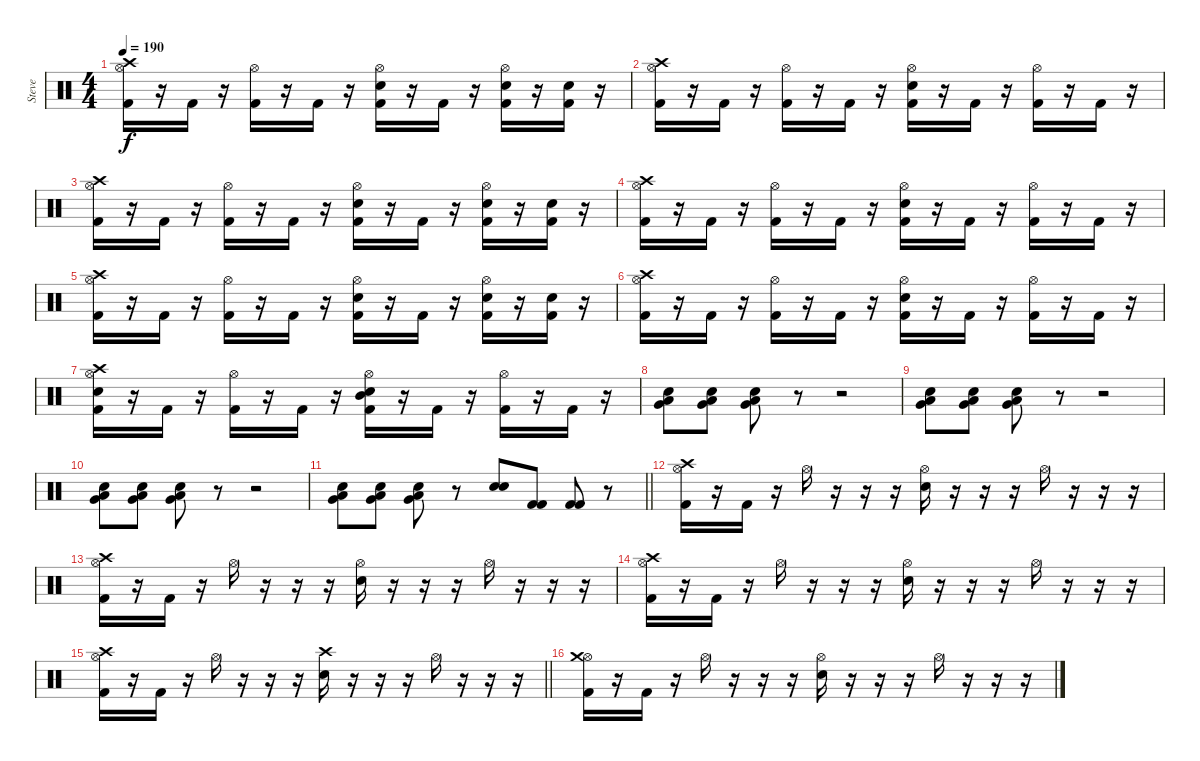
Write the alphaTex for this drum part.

\track ("Steve" "Steve") {instrument percussion}
\staff {score}
\articulation defaults
\ts (4 4)
\tempo 190
\clef neutral
\ks c
("Hi-Hat (open)" "Crash high (hit)" "Kick (hit) 2").16{dy f} r.16 "Kick (hit) 2".16 r.16 ("Hi-Hat (open)" "Kick (hit) 2").16 r.16 "Kick (hit) 2".16 r.16 ("Hi-Hat (open)" "Snare (hit) 2" "Kick (hit) 2").16 r.16 "Kick (hit) 2".16 r.16 ("Hi-Hat (open)" "Snare (hit) 2" "Kick (hit) 2").16 r.16 ("Snare (hit) 2" "Kick (hit) 2").16 r.16 |
("Hi-Hat (open)" "Crash high (hit)" "Kick (hit) 2").16 r.16 "Kick (hit) 2".16 r.16 ("Hi-Hat (open)" "Kick (hit) 2").16 r.16 "Kick (hit) 2".16 r.16 ("Hi-Hat (open)" "Snare (hit) 2" "Kick (hit) 2").16 r.16 "Kick (hit) 2".16 r.16 ("Hi-Hat (open)" "Kick (hit) 2").16 r.16 "Kick (hit) 2".16 r.16 |
("Hi-Hat (open)" "Crash high (hit)" "Kick (hit) 2").16 r.16 "Kick (hit) 2".16 r.16 ("Hi-Hat (open)" "Kick (hit) 2").16 r.16 "Kick (hit) 2".16 r.16 ("Hi-Hat (open)" "Snare (hit) 2" "Kick (hit) 2").16 r.16 "Kick (hit) 2".16 r.16 ("Hi-Hat (open)" "Snare (hit) 2" "Kick (hit) 2").16 r.16 ("Snare (hit) 2" "Kick (hit) 2").16 r.16 |
("Hi-Hat (open)" "Crash high (hit)" "Kick (hit) 2").16 r.16 "Kick (hit) 2".16 r.16 ("Hi-Hat (open)" "Kick (hit) 2").16 r.16 "Kick (hit) 2".16 r.16 ("Hi-Hat (open)" "Snare (hit) 2" "Kick (hit) 2").16 r.16 "Kick (hit) 2".16 r.16 ("Hi-Hat (open)" "Kick (hit) 2").16 r.16 "Kick (hit) 2".16 r.16 |
("Hi-Hat (open)" "Crash high (hit)" "Kick (hit) 2").16 r.16 "Kick (hit) 2".16 r.16 ("Hi-Hat (open)" "Kick (hit) 2").16 r.16 "Kick (hit) 2".16 r.16 ("Hi-Hat (open)" "Snare (hit) 2" "Kick (hit) 2").16 r.16 "Kick (hit) 2".16 r.16 ("Hi-Hat (open)" "Snare (hit) 2" "Kick (hit) 2").16 r.16 ("Snare (hit) 2" "Kick (hit) 2").16 r.16 |
("Hi-Hat (open)" "Crash high (hit)" "Kick (hit) 2").16 r.16 "Kick (hit) 2".16 r.16 ("Hi-Hat (open)" "Kick (hit) 2").16 r.16 "Kick (hit) 2".16 r.16 ("Hi-Hat (open)" "Snare (hit) 2" "Kick (hit) 2").16 r.16 "Kick (hit) 2".16 r.16 ("Hi-Hat (open)" "Kick (hit) 2").16 r.16 "Kick (hit) 2".16 r.16 |
("Hi-Hat (open)" "Crash high (hit)" "Snare (hit) 2" "Kick (hit) 2").16 r.16 "Kick (hit) 2".16 r.16 ("Hi-Hat (open)" "Kick (hit) 2").16 r.16 "Kick (hit) 2".16 r.16 ("Hi-Hat (open)" "Mid Tom (hit)" "Snare (hit) 2" "Kick (hit) 2").16 r.16 "Kick (hit) 2".16 r.16 ("Hi-Hat (open)" "Kick (hit) 2").16 r.16 "Kick (hit) 2".16 r.16 |
("Very Low Tom (hit)" "Low Floor Tom (hit)" "Snare (hit) 2").8 ("Very Low Tom (hit)" "Low Floor Tom (hit)" "Snare (hit) 2").8 ("Very Low Tom (hit)" "Low Floor Tom (hit)" "Snare (hit) 2").8 r.8 r.2 |
("Very Low Tom (hit)" "Low Floor Tom (hit)" "Snare (hit) 2").8 ("Very Low Tom (hit)" "Low Floor Tom (hit)" "Snare (hit) 2").8 ("Very Low Tom (hit)" "Low Floor Tom (hit)" "Snare (hit) 2").8 r.8 r.2 |
("Very Low Tom (hit)" "Low Floor Tom (hit)" "Snare (hit) 2").8 ("Very Low Tom (hit)" "Low Floor Tom (hit)" "Snare (hit) 2").8 ("Very Low Tom (hit)" "Low Floor Tom (hit)" "Snare (hit) 2").8 r.8 r.2 |
\barLineRight lightlight
("Very Low Tom (hit)" "Low Floor Tom (hit)" "Snare (hit) 2").8 ("Very Low Tom (hit)" "Low Floor Tom (hit)" "Snare (hit) 2").8 ("Very Low Tom (hit)" "Low Floor Tom (hit)" "Snare (hit) 2").8 r.8 ("Snare (hit) 2" "Snare (hit) 2").8 ("Kick (hit) 2" "Kick (hit) 2").8 ("Kick (hit) 2" "Kick (hit) 2").8 r.8 |
("Hi-Hat (open)" "Crash high (hit)" "Kick (hit) 2").16 r.16 "Kick (hit) 2".16 r.16 "Hi-Hat (open)".16 r.16 r.16 r.16 ("Hi-Hat (open)" "Snare (hit) 2").16 r.16 r.16 r.16 "Hi-Hat (open)".16 r.16 r.16 r.16 |
("Hi-Hat (open)" "Crash high (hit)" "Kick (hit) 2").16 r.16 "Kick (hit) 2".16 r.16 "Hi-Hat (open)".16 r.16 r.16 r.16 ("Hi-Hat (open)" "Snare (hit) 2").16 r.16 r.16 r.16 "Hi-Hat (open)".16 r.16 r.16 r.16 |
("Hi-Hat (open)" "Crash high (hit)" "Kick (hit) 2").16 r.16 "Kick (hit) 2".16 r.16 "Hi-Hat (open)".16 r.16 r.16 r.16 ("Hi-Hat (open)" "Snare (hit) 2").16 r.16 r.16 r.16 "Hi-Hat (open)".16 r.16 r.16 r.16 |
\barLineRight lightlight
("Hi-Hat (open)" "Crash high (hit)" "Kick (hit) 2").16 r.16 "Kick (hit) 2".16 r.16 "Hi-Hat (open)".16 r.16 r.16 r.16 ("Crash high (hit)" "Snare (hit) 2").16 r.16 r.16 r.16 "Hi-Hat (open)".16 r.16 r.16 r.16 |
("Hi-Hat (open)" "Crash medium (hit)" "Kick (hit) 2").16 r.16 "Kick (hit) 2".16 r.16 "Hi-Hat (open)".16 r.16 r.16 r.16 ("Hi-Hat (open)" "Snare (hit) 2").16 r.16 r.16 r.16 "Hi-Hat (open)".16 r.16 r.16 r.16
